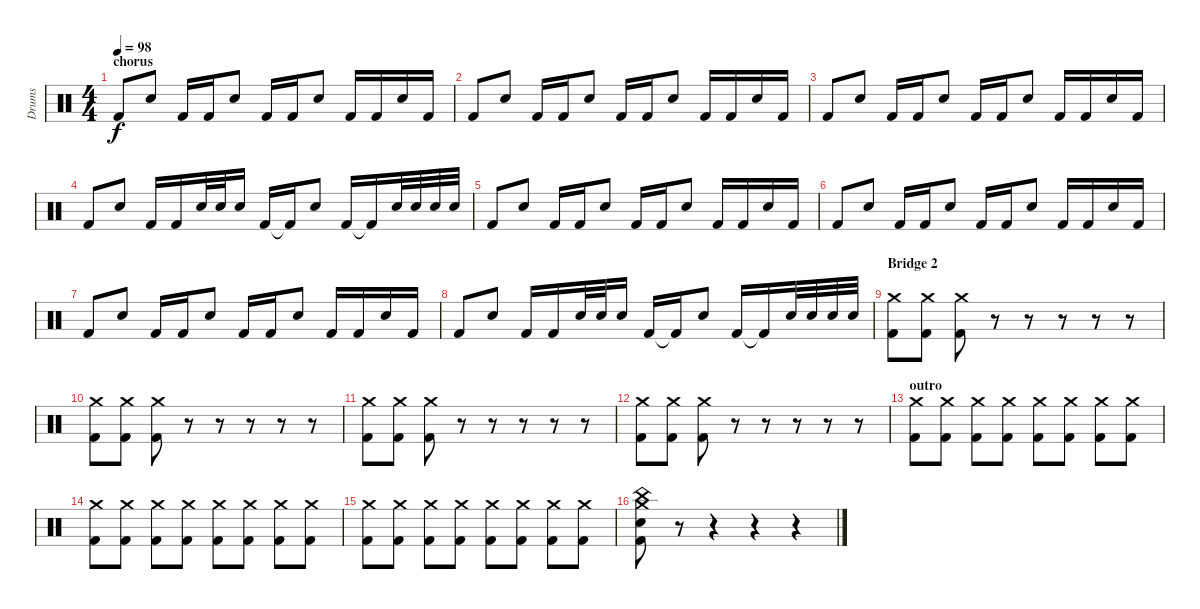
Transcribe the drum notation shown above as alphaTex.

\track ("Drums" "Drums") {instrument percussion}
\staff {score}
\articulation defaults
\ts (4 4)
\section ("" "chorus")
\tempo 98
\clef neutral
\ks c "Kick (hit) 2".8{dy f} "Electric Snare (hit)".8 "Kick (hit) 2".16 "Kick (hit) 2".16 "Electric Snare (hit)".8 "Kick (hit) 2".16 "Kick (hit) 2".16 "Electric Snare (hit)".8 "Kick (hit) 2".16 "Kick (hit) 2".16 "Electric Snare (hit)".16 "Kick (hit) 2".16
|
"Kick (hit) 2".8 "Electric Snare (hit)".8 "Kick (hit) 2".16 "Kick (hit) 2".16 "Electric Snare (hit)".8 "Kick (hit) 2".16 "Kick (hit) 2".16 "Electric Snare (hit)".8 "Kick (hit) 2".16 "Kick (hit) 2".16 "Electric Snare (hit)".16 "Kick (hit) 2".16 |
"Kick (hit) 2".8 "Electric Snare (hit)".8 "Kick (hit) 2".16 "Kick (hit) 2".16 "Electric Snare (hit)".8 "Kick (hit) 2".16 "Kick (hit) 2".16 "Electric Snare (hit)".8 "Kick (hit) 2".16 "Kick (hit) 2".16 "Electric Snare (hit)".16 "Kick (hit) 2".16 |
"Kick (hit) 2".8 "Electric Snare (hit)".8 "Kick (hit) 2".16 "Kick (hit) 2".16 "Electric Snare (hit)".32 "Electric Snare (hit)".32 "Electric Snare (hit)".16 "Kick (hit) 2".16 "Kick (hit) 2"{t}.16 "Electric Snare (hit)".8 "Kick (hit) 2".16 "Kick (hit) 2"{t}.16 "Electric Snare (hit)".32 "Electric Snare (hit)".32 "Electric Snare (hit)".32 "Electric Snare (hit)".32 |
"Kick (hit) 2".8 "Electric Snare (hit)".8 "Kick (hit) 2".16 "Kick (hit) 2".16 "Electric Snare (hit)".8 "Kick (hit) 2".16 "Kick (hit) 2".16 "Electric Snare (hit)".8 "Kick (hit) 2".16 "Kick (hit) 2".16 "Electric Snare (hit)".16 "Kick (hit) 2".16 |
"Kick (hit) 2".8 "Electric Snare (hit)".8 "Kick (hit) 2".16 "Kick (hit) 2".16 "Electric Snare (hit)".8 "Kick (hit) 2".16 "Kick (hit) 2".16 "Electric Snare (hit)".8 "Kick (hit) 2".16 "Kick (hit) 2".16 "Electric Snare (hit)".16 "Kick (hit) 2".16 |
"Kick (hit) 2".8 "Electric Snare (hit)".8 "Kick (hit) 2".16 "Kick (hit) 2".16 "Electric Snare (hit)".8 "Kick (hit) 2".16 "Kick (hit) 2".16 "Electric Snare (hit)".8 "Kick (hit) 2".16 "Kick (hit) 2".16 "Electric Snare (hit)".16 "Kick (hit) 2".16 |
"Kick (hit) 2".8 "Electric Snare (hit)".8 "Kick (hit) 2".16 "Kick (hit) 2".16 "Electric Snare (hit)".32 "Electric Snare (hit)".32 "Electric Snare (hit)".16 "Kick (hit) 2".16 "Kick (hit) 2"{t}.16 "Electric Snare (hit)".8 "Kick (hit) 2".16 "Kick (hit) 2"{t}.16 "Electric Snare (hit)".32 "Electric Snare (hit)".32 "Electric Snare (hit)".32 "Electric Snare (hit)".32 |
\section ("" "Bridge 2")
("Crash medium (hit)" "Kick (hit) 2").8 ("Crash medium (hit)" "Kick (hit) 2").8 ("Crash medium (hit)" "Kick (hit) 2").8 r.8 r.8 r.8 r.8 r.8 |
("Crash medium (hit)" "Kick (hit) 2").8 ("Crash medium (hit)" "Kick (hit) 2").8 ("Crash medium (hit)" "Kick (hit) 2").8 r.8 r.8 r.8 r.8 r.8 |
("Crash medium (hit)" "Kick (hit) 2").8 ("Crash medium (hit)" "Kick (hit) 2").8 ("Crash medium (hit)" "Kick (hit) 2").8 r.8 r.8 r.8 r.8 r.8 |
("Crash medium (hit)" "Kick (hit) 2").8 ("Crash medium (hit)" "Kick (hit) 2").8 ("Crash medium (hit)" "Kick (hit) 2").8 r.8 r.8 r.8 r.8 r.8 |
\section ("" "outro")
("Crash medium (hit)" "Kick (hit) 2").8 ("Crash medium (hit)" "Kick (hit) 2").8 ("Crash medium (hit)" "Kick (hit) 2").8 ("Crash medium (hit)" "Kick (hit) 2").8 ("Crash medium (hit)" "Kick (hit) 2").8 ("Crash medium (hit)" "Kick (hit) 2").8 ("Crash medium (hit)" "Kick (hit) 2").8 ("Crash medium (hit)" "Kick (hit) 2").8 |
("Crash medium (hit)" "Kick (hit) 2").8 ("Crash medium (hit)" "Kick (hit) 2").8 ("Crash medium (hit)" "Kick (hit) 2").8 ("Crash medium (hit)" "Kick (hit) 2").8 ("Crash medium (hit)" "Kick (hit) 2").8 ("Crash medium (hit)" "Kick (hit) 2").8 ("Crash medium (hit)" "Kick (hit) 2").8 ("Crash medium (hit)" "Kick (hit) 2").8 |
("Crash medium (hit)" "Kick (hit) 2").8 ("Crash medium (hit)" "Kick (hit) 2").8 ("Crash medium (hit)" "Kick (hit) 2").8 ("Crash medium (hit)" "Kick (hit) 2").8 ("Crash medium (hit)" "Kick (hit) 2").8 ("Crash medium (hit)" "Kick (hit) 2").8 ("Crash medium (hit)" "Kick (hit) 2").8 ("Crash medium (hit)" "Kick (hit) 2").8 |
("Crash medium (hit)" "China (hit)" "Electric Snare (hit)" "Kick (hit) 2").8 r.8 r.4 r.4 r.4
